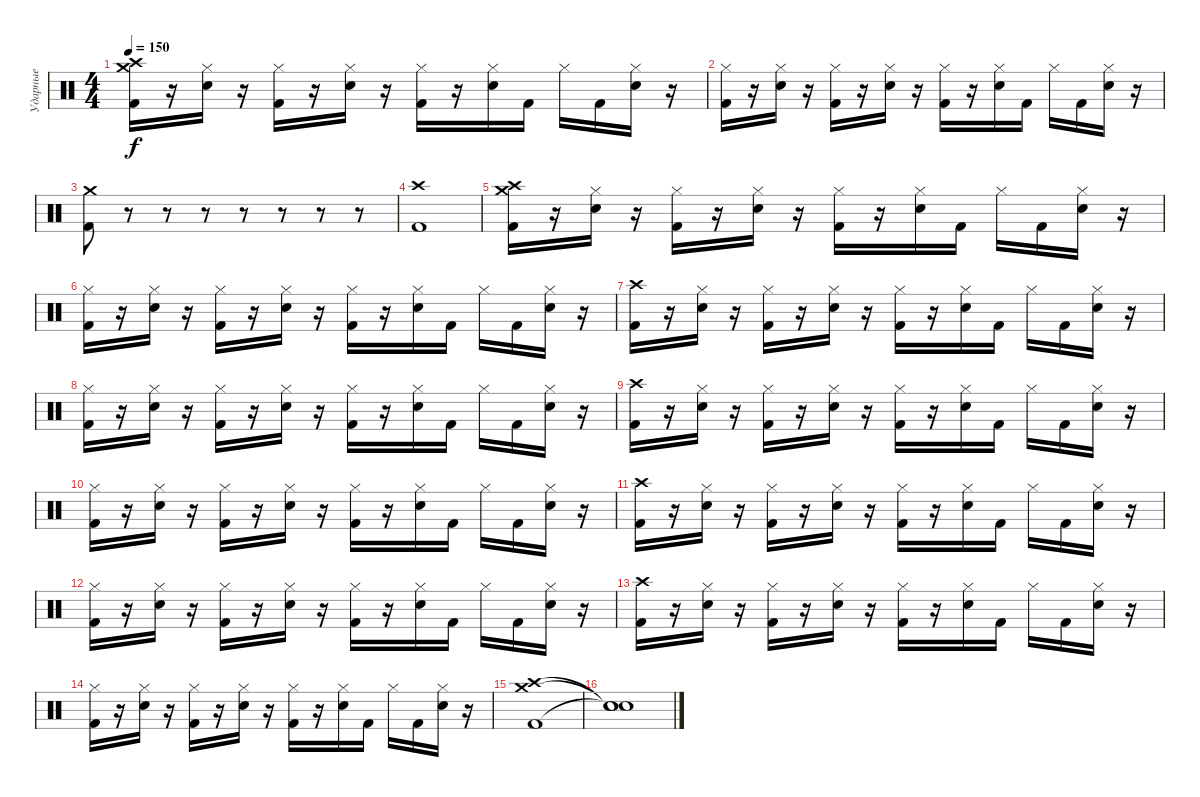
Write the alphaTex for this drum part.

\track ("Ударные" "Ударные") {instrument percussion}
\staff {score}
\articulation defaults
\ts (4 4)
\tempo 150
\clef neutral
\ks c
("Crash high (hit)" "Kick (hit) 2" "Crash medium (hit)").16{dy f} r.16 ("Hi-Hat (closed)" "Snare (hit) 2").16 r.16 ("Hi-Hat (closed)" "Kick (hit) 2").16 r.16 ("Hi-Hat (closed)" "Snare (hit) 2").16 r.16 ("Hi-Hat (closed)" "Kick (hit) 2").16 r.16 ("Hi-Hat (closed)" "Snare (hit) 2").16 "Kick (hit) 2".16 "Hi-Hat (closed)".16 "Kick (hit) 2".16 ("Hi-Hat (closed)" "Snare (hit) 2").16 r.16 |
("Hi-Hat (closed)" "Kick (hit) 2").16 r.16 ("Hi-Hat (closed)" "Snare (hit) 2").16 r.16 ("Hi-Hat (closed)" "Kick (hit) 2").16 r.16 ("Hi-Hat (closed)" "Snare (hit) 2").16 r.16 ("Hi-Hat (closed)" "Kick (hit) 2").16 r.16 ("Hi-Hat (closed)" "Snare (hit) 2").16 "Kick (hit) 2".16 "Hi-Hat (closed)".16 "Kick (hit) 2".16 ("Hi-Hat (closed)" "Snare (hit) 2").16 r.16 |
("Crash medium (hit)" "Kick (hit) 2").8 r.8 r.8 r.8 r.8 r.8 r.8 r.8 |
("Crash high (hit)" "Kick (hit) 2").1 |
("Crash high (hit)" "Kick (hit) 2" "Crash medium (hit)").16 r.16 ("Hi-Hat (closed)" "Snare (hit) 2").16 r.16 ("Hi-Hat (closed)" "Kick (hit) 2").16 r.16 ("Hi-Hat (closed)" "Snare (hit) 2").16 r.16 ("Hi-Hat (closed)" "Kick (hit) 2").16 r.16 ("Hi-Hat (closed)" "Snare (hit) 2").16 "Kick (hit) 2".16 "Hi-Hat (closed)".16 "Kick (hit) 2".16 ("Hi-Hat (closed)" "Snare (hit) 2").16 r.16 |
("Hi-Hat (closed)" "Kick (hit) 2").16 r.16 ("Hi-Hat (closed)" "Snare (hit) 2").16 r.16 ("Hi-Hat (closed)" "Kick (hit) 2").16 r.16 ("Hi-Hat (closed)" "Snare (hit) 2").16 r.16 ("Hi-Hat (closed)" "Kick (hit) 2").16 r.16 ("Hi-Hat (closed)" "Snare (hit) 2").16 "Kick (hit) 2".16 "Hi-Hat (closed)".16 "Kick (hit) 2".16 ("Hi-Hat (closed)" "Snare (hit) 2").16 r.16 |
("Crash high (hit)" "Kick (hit) 2").16 r.16 ("Hi-Hat (closed)" "Snare (hit) 2").16 r.16 ("Hi-Hat (closed)" "Kick (hit) 2").16 r.16 ("Hi-Hat (closed)" "Snare (hit) 2").16 r.16 ("Hi-Hat (closed)" "Kick (hit) 2").16 r.16 ("Hi-Hat (closed)" "Snare (hit) 2").16 "Kick (hit) 2".16 "Hi-Hat (closed)".16 "Kick (hit) 2".16 ("Hi-Hat (closed)" "Snare (hit) 2").16 r.16 |
("Hi-Hat (closed)" "Kick (hit) 2").16 r.16 ("Hi-Hat (closed)" "Snare (hit) 2").16 r.16 ("Hi-Hat (closed)" "Kick (hit) 2").16 r.16 ("Hi-Hat (closed)" "Snare (hit) 2").16 r.16 ("Hi-Hat (closed)" "Kick (hit) 2").16 r.16 ("Hi-Hat (closed)" "Snare (hit) 2").16 "Kick (hit) 2".16 "Hi-Hat (closed)".16 "Kick (hit) 2".16 ("Hi-Hat (closed)" "Snare (hit) 2").16 r.16 |
("Crash high (hit)" "Kick (hit) 2").16 r.16 ("Hi-Hat (closed)" "Snare (hit) 2").16 r.16 ("Hi-Hat (closed)" "Kick (hit) 2").16 r.16 ("Hi-Hat (closed)" "Snare (hit) 2").16 r.16 ("Hi-Hat (closed)" "Kick (hit) 2").16 r.16 ("Hi-Hat (closed)" "Snare (hit) 2").16 "Kick (hit) 2".16 "Hi-Hat (closed)".16 "Kick (hit) 2".16 ("Hi-Hat (closed)" "Snare (hit) 2").16 r.16 |
("Hi-Hat (closed)" "Kick (hit) 2").16 r.16 ("Hi-Hat (closed)" "Snare (hit) 2").16 r.16 ("Hi-Hat (closed)" "Kick (hit) 2").16 r.16 ("Hi-Hat (closed)" "Snare (hit) 2").16 r.16 ("Hi-Hat (closed)" "Kick (hit) 2").16 r.16 ("Hi-Hat (closed)" "Snare (hit) 2").16 "Kick (hit) 2".16 "Hi-Hat (closed)".16 "Kick (hit) 2".16 ("Hi-Hat (closed)" "Snare (hit) 2").16 r.16 |
("Crash high (hit)" "Kick (hit) 2").16 r.16 ("Hi-Hat (closed)" "Snare (hit) 2").16 r.16 ("Hi-Hat (closed)" "Kick (hit) 2").16 r.16 ("Hi-Hat (closed)" "Snare (hit) 2").16 r.16 ("Hi-Hat (closed)" "Kick (hit) 2").16 r.16 ("Hi-Hat (closed)" "Snare (hit) 2").16 "Kick (hit) 2".16 "Hi-Hat (closed)".16 "Kick (hit) 2".16 ("Hi-Hat (closed)" "Snare (hit) 2").16 r.16 |
("Hi-Hat (closed)" "Kick (hit) 2").16 r.16 ("Hi-Hat (closed)" "Snare (hit) 2").16 r.16 ("Hi-Hat (closed)" "Kick (hit) 2").16 r.16 ("Hi-Hat (closed)" "Snare (hit) 2").16 r.16 ("Hi-Hat (closed)" "Kick (hit) 2").16 r.16 ("Hi-Hat (closed)" "Snare (hit) 2").16 "Kick (hit) 2".16 "Hi-Hat (closed)".16 "Kick (hit) 2".16 ("Hi-Hat (closed)" "Snare (hit) 2").16 r.16 |
("Crash high (hit)" "Kick (hit) 2").16 r.16 ("Hi-Hat (closed)" "Snare (hit) 2").16 r.16 ("Hi-Hat (closed)" "Kick (hit) 2").16 r.16 ("Hi-Hat (closed)" "Snare (hit) 2").16 r.16 ("Hi-Hat (closed)" "Kick (hit) 2").16 r.16 ("Hi-Hat (closed)" "Snare (hit) 2").16 "Kick (hit) 2".16 "Hi-Hat (closed)".16 "Kick (hit) 2".16 ("Hi-Hat (closed)" "Snare (hit) 2").16 r.16 |
("Hi-Hat (closed)" "Kick (hit) 2").16 r.16 ("Hi-Hat (closed)" "Snare (hit) 2").16 r.16 ("Hi-Hat (closed)" "Kick (hit) 2").16 r.16 ("Hi-Hat (closed)" "Snare (hit) 2").16 r.16 ("Hi-Hat (closed)" "Kick (hit) 2").16 r.16 ("Hi-Hat (closed)" "Snare (hit) 2").16 "Kick (hit) 2".16 "Hi-Hat (closed)".16 "Kick (hit) 2".16 ("Hi-Hat (closed)" "Snare (hit) 2").16 r.16 |
("Crash medium (hit)" "Crash high (hit)" "Kick (hit) 2").1 |
("Snare (hit)"{t} "Snare (hit)"{t} "Snare (hit)"{t}).1
